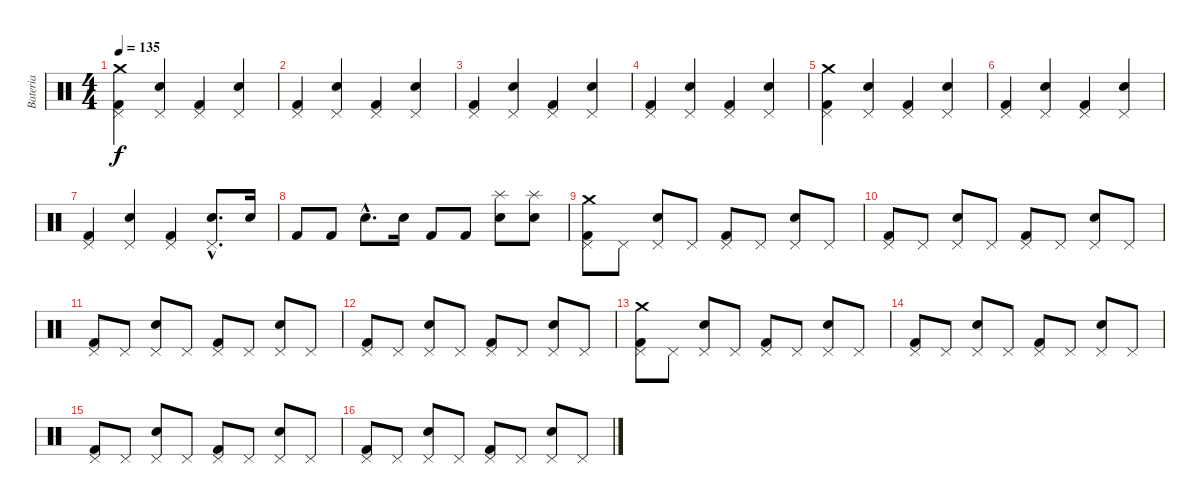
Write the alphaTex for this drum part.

\track ("Bateria" "Bateria") {instrument percussion}
\staff {score}
\articulation defaults
\ts (4 4)
\tempo 135
\clef neutral
\ks c
("Kick (hit) 2" "Pedal Hi-Hat (hit)" "Crash medium (hit)").4{dy f} ("Electric Snare (hit)" "Pedal Hi-Hat (hit)").4 ("Kick (hit) 2" "Pedal Hi-Hat (hit)").4 ("Electric Snare (hit)" "Pedal Hi-Hat (hit)").4 |
("Kick (hit) 2" "Pedal Hi-Hat (hit)").4 ("Electric Snare (hit)" "Pedal Hi-Hat (hit)").4 ("Kick (hit) 2" "Pedal Hi-Hat (hit)").4 ("Electric Snare (hit)" "Pedal Hi-Hat (hit)").4 |
("Kick (hit) 2" "Pedal Hi-Hat (hit)").4 ("Electric Snare (hit)" "Pedal Hi-Hat (hit)").4 ("Kick (hit) 2" "Pedal Hi-Hat (hit)").4 ("Electric Snare (hit)" "Pedal Hi-Hat (hit)").4 |
("Kick (hit) 2" "Pedal Hi-Hat (hit)").4 ("Electric Snare (hit)" "Pedal Hi-Hat (hit)").4 ("Kick (hit) 2" "Pedal Hi-Hat (hit)").4 ("Electric Snare (hit)" "Pedal Hi-Hat (hit)").4 |
("Kick (hit) 2" "Pedal Hi-Hat (hit)" "Crash medium (hit)").4 ("Electric Snare (hit)" "Pedal Hi-Hat (hit)").4 ("Kick (hit) 2" "Pedal Hi-Hat (hit)").4 ("Electric Snare (hit)" "Pedal Hi-Hat (hit)").4 |
("Kick (hit) 2" "Pedal Hi-Hat (hit)").4 ("Electric Snare (hit)" "Pedal Hi-Hat (hit)").4 ("Kick (hit) 2" "Pedal Hi-Hat (hit)").4 ("Electric Snare (hit)" "Pedal Hi-Hat (hit)").4 |
("Kick (hit) 2" "Pedal Hi-Hat (hit)").4 ("Electric Snare (hit)" "Pedal Hi-Hat (hit)").4 ("Kick (hit) 2" "Pedal Hi-Hat (hit)").4 ("Electric Snare (hit)"{hac} "Pedal Hi-Hat (hit)"{hac}).8{d} "Electric Snare (hit)".16 |
"Kick (hit) 2".8 "Kick (hit) 2".8 "Electric Snare (hit)"{hac}.8{d} "Electric Snare (hit)".16 "Kick (hit) 2".8 "Kick (hit) 2".8 ("Electric Snare (hit)" "Splash (hit)").8 ("Electric Snare (hit)" "Splash (hit)").8 |
("Kick (hit) 2" "Pedal Hi-Hat (hit)" "Crash medium (hit)").8 "Pedal Hi-Hat (hit)".8 ("Electric Snare (hit)" "Pedal Hi-Hat (hit)").8 "Pedal Hi-Hat (hit)".8 ("Kick (hit) 2" "Pedal Hi-Hat (hit)").8 "Pedal Hi-Hat (hit)".8 ("Electric Snare (hit)" "Pedal Hi-Hat (hit)").8 "Pedal Hi-Hat (hit)".8 |
("Kick (hit) 2" "Pedal Hi-Hat (hit)").8 "Pedal Hi-Hat (hit)".8 ("Electric Snare (hit)" "Pedal Hi-Hat (hit)").8 "Pedal Hi-Hat (hit)".8 ("Kick (hit) 2" "Pedal Hi-Hat (hit)").8 "Pedal Hi-Hat (hit)".8 ("Electric Snare (hit)" "Pedal Hi-Hat (hit)").8 "Pedal Hi-Hat (hit)".8 |
("Kick (hit) 2" "Pedal Hi-Hat (hit)").8 "Pedal Hi-Hat (hit)".8 ("Electric Snare (hit)" "Pedal Hi-Hat (hit)").8 "Pedal Hi-Hat (hit)".8 ("Kick (hit) 2" "Pedal Hi-Hat (hit)").8 "Pedal Hi-Hat (hit)".8 ("Electric Snare (hit)" "Pedal Hi-Hat (hit)").8 "Pedal Hi-Hat (hit)".8 |
("Kick (hit) 2" "Pedal Hi-Hat (hit)").8 "Pedal Hi-Hat (hit)".8 ("Electric Snare (hit)" "Pedal Hi-Hat (hit)").8 "Pedal Hi-Hat (hit)".8 ("Kick (hit) 2" "Pedal Hi-Hat (hit)").8 "Pedal Hi-Hat (hit)".8 ("Electric Snare (hit)" "Pedal Hi-Hat (hit)").8 "Pedal Hi-Hat (hit)".8 |
("Kick (hit) 2" "Pedal Hi-Hat (hit)" "Crash medium (hit)").8 "Pedal Hi-Hat (hit)".8 ("Electric Snare (hit)" "Pedal Hi-Hat (hit)").8 "Pedal Hi-Hat (hit)".8 ("Kick (hit) 2" "Pedal Hi-Hat (hit)").8 "Pedal Hi-Hat (hit)".8 ("Electric Snare (hit)" "Pedal Hi-Hat (hit)").8 "Pedal Hi-Hat (hit)".8 |
("Kick (hit) 2" "Pedal Hi-Hat (hit)").8 "Pedal Hi-Hat (hit)".8 ("Electric Snare (hit)" "Pedal Hi-Hat (hit)").8 "Pedal Hi-Hat (hit)".8 ("Kick (hit) 2" "Pedal Hi-Hat (hit)").8 "Pedal Hi-Hat (hit)".8 ("Electric Snare (hit)" "Pedal Hi-Hat (hit)").8 "Pedal Hi-Hat (hit)".8 |
("Kick (hit) 2" "Pedal Hi-Hat (hit)").8 "Pedal Hi-Hat (hit)".8 ("Electric Snare (hit)" "Pedal Hi-Hat (hit)").8 "Pedal Hi-Hat (hit)".8 ("Kick (hit) 2" "Pedal Hi-Hat (hit)").8 "Pedal Hi-Hat (hit)".8 ("Electric Snare (hit)" "Pedal Hi-Hat (hit)").8 "Pedal Hi-Hat (hit)".8 |
("Kick (hit) 2" "Pedal Hi-Hat (hit)").8 "Pedal Hi-Hat (hit)".8 ("Electric Snare (hit)" "Pedal Hi-Hat (hit)").8 "Pedal Hi-Hat (hit)".8 ("Kick (hit) 2" "Pedal Hi-Hat (hit)").8 "Pedal Hi-Hat (hit)".8 ("Electric Snare (hit)" "Pedal Hi-Hat (hit)").8 "Pedal Hi-Hat (hit)".8
